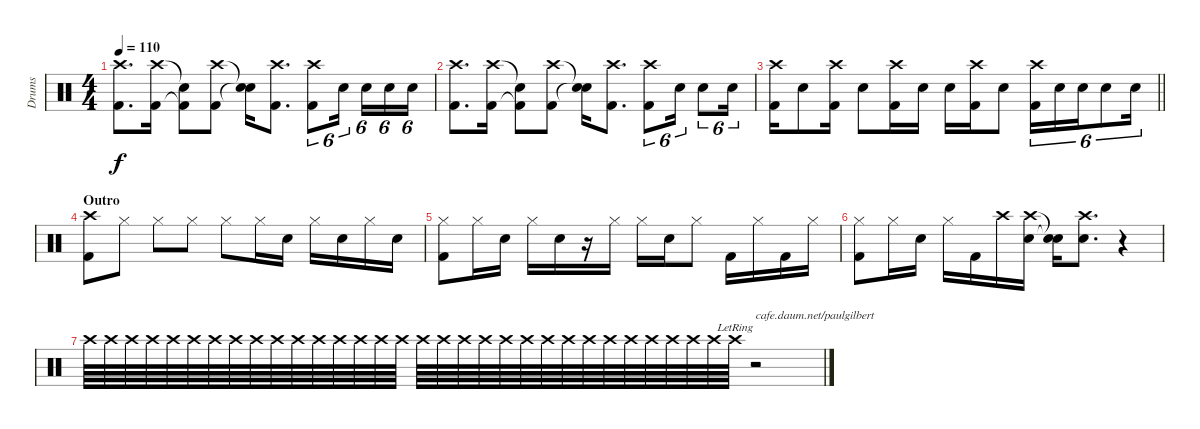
\track ("Drums" "Drums") {instrument percussion}
\staff {score}
\articulation defaults
\ts (4 4)
\tempo 110
\clef neutral
\ks c
("Crash high (hit)" "Kick (hit) 2").8{d dy f} ("Crash high (hit)" "Kick (hit) 2").16 ("Snare (hit)"{t} "Kick (hit) 2"{t}).8 ("Crash high (hit)" "Kick (hit) 2").8 ("Snare (hit)"{t} "Snare (hit)"{t}).16 ("Crash high (hit)" "Kick (hit) 2").8{d} ("Crash high (hit)" "Kick (hit) 2").8{tu (6 4)} "Snare (hit) 2".16{tu (6 4)} "Snare (hit) 2".16{tu (6 4)} "Snare (hit) 2".16{tu (6 4)} "Snare (hit) 2".16{tu (6 4)} |
("Crash high (hit)" "Kick (hit) 2").8{d} ("Crash high (hit)" "Kick (hit) 2").16 ("Snare (hit)"{t} "Kick (hit) 2"{t}).8 ("Crash high (hit)" "Kick (hit) 2").8 ("Snare (hit)"{t} "Snare (hit)"{t}).16 ("Crash high (hit)" "Kick (hit) 2").8{d} ("Crash high (hit)" "Kick (hit) 2").8{tu (6 4)} "Snare (hit) 2".16{tu (6 4)} "Snare (hit) 2".8{tu (6 4)} "Snare (hit) 2".16{tu (6 4)} |
\barLineRight lightlight
("Crash high (hit)" "Kick (hit) 2").16 "Snare (hit) 2".8 ("Crash high (hit)" "Kick (hit) 2").16 "Snare (hit) 2".8 ("Crash high (hit)" "Kick (hit) 2").16 "Snare (hit) 2".16 "Snare (hit) 2".16 ("Crash high (hit)" "Kick (hit) 2").16 "Snare (hit) 2".8 ("Crash high (hit)" "Kick (hit) 2").16{tu (6 4)} "Snare (hit) 2".16{tu (6 4)} "Snare (hit) 2".16{tu (6 4)} "Snare (hit) 2".8{tu (6 4)} "Snare (hit) 2".16{tu (6 4)} |
\section ("" "Outro")
("Crash high (hit)" "Kick (hit) 2").8 "Hi-Hat (closed)".8 "Hi-Hat (closed)".8 "Hi-Hat (closed)".8 "Hi-Hat (closed)".8 "Hi-Hat (closed)".16 "Snare (hit) 2".16 "Hi-Hat (closed)".16 "Snare (hit) 2".16 "Hi-Hat (closed)".16 "Snare (hit) 2".16 |
("Hi-Hat (closed)" "Kick (hit) 2").8 "Hi-Hat (closed)".16 "Snare (hit) 2".16 "Hi-Hat (closed)".16 "Snare (hit) 2".16 r.16 "Hi-Hat (closed)".16 "Hi-Hat (closed)".16 "Snare (hit) 2".16 "Hi-Hat (closed)".8 "Kick (hit) 2".16 "Hi-Hat (closed)".16 "Kick (hit) 2".16 "Hi-Hat (closed)".16 |
("Hi-Hat (closed)" "Kick (hit) 2").8 "Hi-Hat (closed)".16 "Snare (hit) 2".16 "Hi-Hat (closed)".16 "Kick (hit) 2".16 "Crash high (hit)".16 ("Crash high (hit)" "Snare (hit) 2").16 ("Snare (hit)"{t} "Snare (hit)"{t}).16 ("Crash high (hit)" "Snare (hit) 2").8{d} r.4 |
"Crash high (hit)".64 "Crash high (hit)".64 "Crash high (hit)".64 "Crash high (hit)".64 "Crash high (hit)".64 "Crash high (hit)".64 "Crash high (hit)".64 "Crash high (hit)".64 "Crash high (hit)".64 "Crash high (hit)".64 "Crash high (hit)".64 "Crash high (hit)".64 "Crash high (hit)".64 "Crash high (hit)".64 "Crash high (hit)".64 "Crash high (hit)".64 "Crash high (hit)".64 "Crash high (hit)".64 "Crash high (hit)".64 "Crash high (hit)".64 "Crash high (hit)".64 "Crash high (hit)".64 "Crash high (hit)".64 "Crash high (hit)".64 "Crash high (hit)".64 "Crash high (hit)".64 "Crash high (hit)".64 "Crash high (hit)".64 "Crash high (hit)".64 "Crash high (hit)".64 "Crash high (hit)".64 "Crash high (hit)"{lr}.64 r.2{txt "cafe.daum.net/paulgilbert"}
